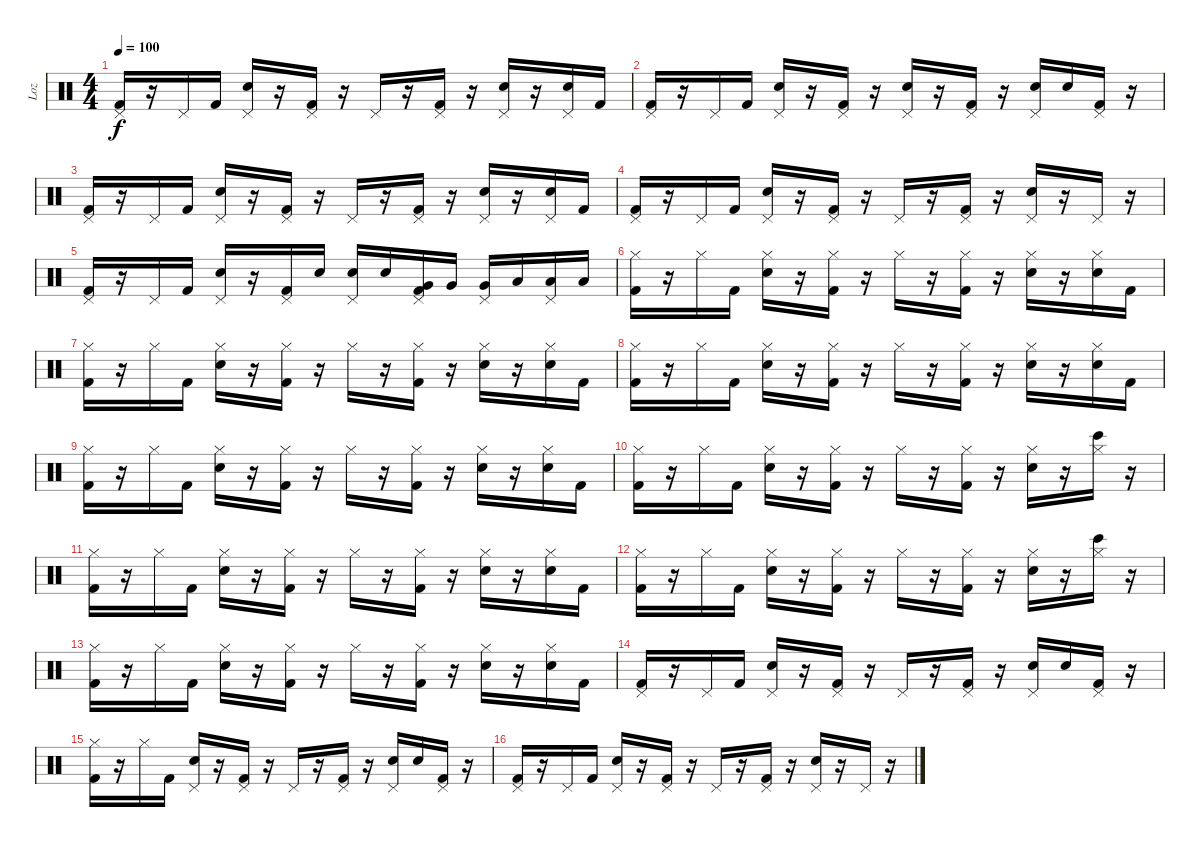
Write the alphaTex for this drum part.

\track ("Loz" "Loz") {instrument percussion}
\staff {score}
\articulation defaults
\ts (4 4)
\tempo 100
\clef neutral
\ks c
("Pedal Hi-Hat (hit)" "Kick (hit) 2").16{dy f} r.16 "Pedal Hi-Hat (hit)".16 "Kick (hit) 2".16 ("Pedal Hi-Hat (hit)" "Electric Snare (hit)").16 r.16 ("Pedal Hi-Hat (hit)" "Kick (hit) 2").16 r.16 "Pedal Hi-Hat (hit)".16 r.16 ("Pedal Hi-Hat (hit)" "Kick (hit) 2").16 r.16 ("Pedal Hi-Hat (hit)" "Electric Snare (hit)").16 r.16 ("Pedal Hi-Hat (hit)" "Electric Snare (hit)").16 "Kick (hit) 2".16 |
("Pedal Hi-Hat (hit)" "Kick (hit) 2").16 r.16 "Pedal Hi-Hat (hit)".16 "Kick (hit) 2".16 ("Pedal Hi-Hat (hit)" "Electric Snare (hit)").16 r.16 ("Pedal Hi-Hat (hit)" "Kick (hit) 2").16 r.16 ("Pedal Hi-Hat (hit)" "Electric Snare (hit)").16 r.16 ("Pedal Hi-Hat (hit)" "Kick (hit) 2").16 r.16 ("Pedal Hi-Hat (hit)" "Electric Snare (hit)").16 "Electric Snare (hit)".16 ("Pedal Hi-Hat (hit)" "Kick (hit) 2").16 r.16 |
("Pedal Hi-Hat (hit)" "Kick (hit) 2").16 r.16 "Pedal Hi-Hat (hit)".16 "Kick (hit) 2".16 ("Pedal Hi-Hat (hit)" "Electric Snare (hit)").16 r.16 ("Pedal Hi-Hat (hit)" "Kick (hit) 2").16 r.16 "Pedal Hi-Hat (hit)".16 r.16 ("Pedal Hi-Hat (hit)" "Kick (hit) 2").16 r.16 ("Pedal Hi-Hat (hit)" "Electric Snare (hit)").16 r.16 ("Pedal Hi-Hat (hit)" "Electric Snare (hit)").16 "Kick (hit) 2".16 |
("Pedal Hi-Hat (hit)" "Kick (hit) 2").16 r.16 "Pedal Hi-Hat (hit)".16 "Kick (hit) 2".16 ("Pedal Hi-Hat (hit)" "Electric Snare (hit)").16 r.16 ("Pedal Hi-Hat (hit)" "Kick (hit) 2").16 r.16 "Pedal Hi-Hat (hit)".16 r.16 ("Pedal Hi-Hat (hit)" "Kick (hit) 2").16 r.16 ("Pedal Hi-Hat (hit)" "Electric Snare (hit)").16 r.16 "Pedal Hi-Hat (hit)".16 r.16 |
("Pedal Hi-Hat (hit)" "Kick (hit) 2").16 r.16 "Pedal Hi-Hat (hit)".16 "Kick (hit) 2".16 ("Pedal Hi-Hat (hit)" "Electric Snare (hit)").16 r.16 ("Pedal Hi-Hat (hit)" "Kick (hit) 2").16 "Electric Snare (hit)".16 ("Pedal Hi-Hat (hit)" "Electric Snare (hit)").16 "Electric Snare (hit)".16 ("Pedal Hi-Hat (hit)" "Very Low Tom (hit)" "Kick (hit) 2").16 "Very Low Tom (hit)".16 ("Pedal Hi-Hat (hit)" "Very Low Tom (hit)").16 "Low Floor Tom (hit)".16 ("Pedal Hi-Hat (hit)" "Low Floor Tom (hit)").16 "Low Floor Tom (hit)".16 |
("Hi-Hat (closed)" "Kick (hit) 2").16 r.16 "Hi-Hat (closed)".16 "Kick (hit) 2".16 ("Hi-Hat (closed)" "Electric Snare (hit)").16 r.16 ("Hi-Hat (closed)" "Kick (hit) 2").16 r.16 "Hi-Hat (closed)".16 r.16 ("Hi-Hat (closed)" "Kick (hit) 2").16 r.16 ("Hi-Hat (closed)" "Electric Snare (hit)").16 r.16 ("Hi-Hat (closed)" "Electric Snare (hit)").16 "Kick (hit) 2".16 |
("Hi-Hat (closed)" "Kick (hit) 2").16 r.16 "Hi-Hat (closed)".16 "Kick (hit) 2".16 ("Hi-Hat (closed)" "Electric Snare (hit)").16 r.16 ("Hi-Hat (closed)" "Kick (hit) 2").16 r.16 "Hi-Hat (closed)".16 r.16 ("Hi-Hat (closed)" "Kick (hit) 2").16 r.16 ("Hi-Hat (closed)" "Electric Snare (hit)").16 r.16 ("Hi-Hat (closed)" "Electric Snare (hit)").16 "Kick (hit) 2".16 |
("Hi-Hat (closed)" "Kick (hit) 2").16 r.16 "Hi-Hat (closed)".16 "Kick (hit) 2".16 ("Hi-Hat (closed)" "Electric Snare (hit)").16 r.16 ("Hi-Hat (closed)" "Kick (hit) 2").16 r.16 "Hi-Hat (closed)".16 r.16 ("Hi-Hat (closed)" "Kick (hit) 2").16 r.16 ("Hi-Hat (closed)" "Electric Snare (hit)").16 r.16 ("Hi-Hat (closed)" "Electric Snare (hit)").16 "Kick (hit) 2".16 |
("Hi-Hat (closed)" "Kick (hit) 2").16 r.16 "Hi-Hat (closed)".16 "Kick (hit) 2".16 ("Hi-Hat (closed)" "Electric Snare (hit)").16 r.16 ("Hi-Hat (closed)" "Kick (hit) 2").16 r.16 "Hi-Hat (closed)".16 r.16 ("Hi-Hat (closed)" "Kick (hit) 2").16 r.16 ("Hi-Hat (closed)" "Electric Snare (hit)").16 r.16 ("Hi-Hat (closed)" "Electric Snare (hit)").16 "Kick (hit) 2".16 |
("Hi-Hat (closed)" "Kick (hit) 2").16 r.16 "Hi-Hat (closed)".16 "Kick (hit) 2".16 ("Hi-Hat (closed)" "Electric Snare (hit)").16 r.16 ("Hi-Hat (closed)" "Kick (hit) 2").16 r.16 "Hi-Hat (closed)".16 r.16 ("Hi-Hat (closed)" "Kick (hit) 2").16 r.16 ("Hi-Hat (closed)" "Electric Snare (hit)").16 r.16 ("Hi-Hat (closed)" "Bongo High (hit)").16 r.16 |
("Hi-Hat (closed)" "Kick (hit) 2").16 r.16 "Hi-Hat (closed)".16 "Kick (hit) 2".16 ("Hi-Hat (closed)" "Electric Snare (hit)").16 r.16 ("Hi-Hat (closed)" "Kick (hit) 2").16 r.16 "Hi-Hat (closed)".16 r.16 ("Hi-Hat (closed)" "Kick (hit) 2").16 r.16 ("Hi-Hat (closed)" "Electric Snare (hit)").16 r.16 ("Hi-Hat (closed)" "Electric Snare (hit)").16 "Kick (hit) 2".16 |
("Hi-Hat (closed)" "Kick (hit) 2").16 r.16 "Hi-Hat (closed)".16 "Kick (hit) 2".16 ("Hi-Hat (closed)" "Electric Snare (hit)").16 r.16 ("Hi-Hat (closed)" "Kick (hit) 2").16 r.16 "Hi-Hat (closed)".16 r.16 ("Hi-Hat (closed)" "Kick (hit) 2").16 r.16 ("Hi-Hat (closed)" "Electric Snare (hit)").16 r.16 ("Hi-Hat (closed)" "Bongo High (hit)").16 r.16 |
("Hi-Hat (closed)" "Kick (hit) 2").16 r.16 "Hi-Hat (closed)".16 "Kick (hit) 2".16 ("Hi-Hat (closed)" "Electric Snare (hit)").16 r.16 ("Hi-Hat (closed)" "Kick (hit) 2").16 r.16 "Hi-Hat (closed)".16 r.16 ("Hi-Hat (closed)" "Kick (hit) 2").16 r.16 ("Hi-Hat (closed)" "Electric Snare (hit)").16 r.16 ("Hi-Hat (closed)" "Electric Snare (hit)").16 "Kick (hit) 2".16 |
("Pedal Hi-Hat (hit)" "Kick (hit) 2").16 r.16 "Pedal Hi-Hat (hit)".16 "Kick (hit) 2".16 ("Pedal Hi-Hat (hit)" "Electric Snare (hit)").16 r.16 ("Pedal Hi-Hat (hit)" "Kick (hit) 2").16 r.16 "Pedal Hi-Hat (hit)".16 r.16 ("Pedal Hi-Hat (hit)" "Kick (hit) 2").16 r.16 ("Pedal Hi-Hat (hit)" "Electric Snare (hit)").16 "Electric Snare (hit)".16 ("Pedal Hi-Hat (hit)" "Kick (hit) 2").16 r.16 |
("Hi-Hat (closed)" "Kick (hit) 2").16 r.16 "Hi-Hat (closed)".16 "Kick (hit) 2".16 ("Pedal Hi-Hat (hit)" "Electric Snare (hit)").16 r.16 ("Pedal Hi-Hat (hit)" "Kick (hit) 2").16 r.16 "Pedal Hi-Hat (hit)".16 r.16 ("Pedal Hi-Hat (hit)" "Kick (hit) 2").16 r.16 ("Pedal Hi-Hat (hit)" "Electric Snare (hit)").16 "Electric Snare (hit)".16 ("Pedal Hi-Hat (hit)" "Kick (hit) 2").16 r.16 |
("Pedal Hi-Hat (hit)" "Kick (hit) 2").16 r.16 "Pedal Hi-Hat (hit)".16 "Kick (hit) 2".16 ("Pedal Hi-Hat (hit)" "Electric Snare (hit)").16 r.16 ("Pedal Hi-Hat (hit)" "Kick (hit) 2").16 r.16 "Pedal Hi-Hat (hit)".16 r.16 ("Pedal Hi-Hat (hit)" "Kick (hit) 2").16 r.16 ("Pedal Hi-Hat (hit)" "Electric Snare (hit)").16 r.16 "Pedal Hi-Hat (hit)".16 r.16
